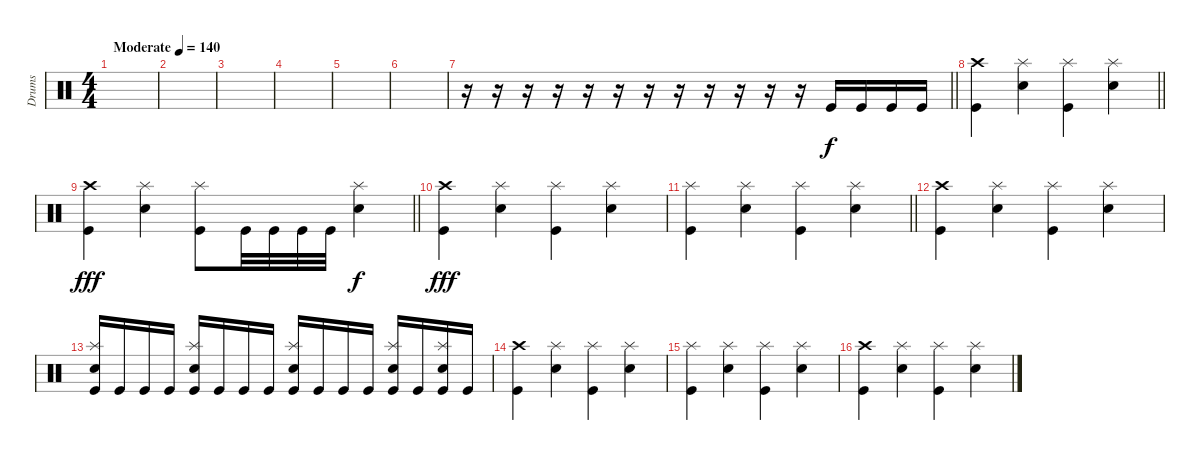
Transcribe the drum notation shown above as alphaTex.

\track ("Drums" "Drums") {instrument percussion}
\staff {score}
\articulation defaults
\ts (4 4)
\tempo (140 "Moderate")
\clef neutral
\ks c
|
|
|
|
|
|
\barLineRight lightlight
r.16 r.16 r.16 r.16 r.16 r.16 r.16 r.16 r.16 r.16 r.16 r.16 "Kick (hit)".16 "Kick (hit)".16 "Kick (hit)".16 "Kick (hit)".16 |
\barLineRight lightlight
("Crash high (hit)" "Kick (hit)").4 ("Splash (hit)" "Electric Snare (hit)").4 ("Splash (hit)" "Kick (hit)").4 ("Splash (hit)" "Electric Snare (hit)").4 |
\barLineRight lightlight
("Crash high (hit)" "Kick (hit)").4{dy fff} ("Splash (hit)" "Electric Snare (hit)").4 ("Splash (hit)" "Kick (hit)").8 "Kick (hit)".32 "Kick (hit)".32 "Kick (hit)".32 "Kick (hit)".32 ("Splash (hit)" "Electric Snare (hit)").4{dy f} |
("Crash high (hit)" "Kick (hit)").4{dy fff} ("Splash (hit)" "Electric Snare (hit)").4 ("Splash (hit)" "Kick (hit)").4 ("Splash (hit)" "Electric Snare (hit)").4 |
\barLineRight lightlight
("Splash (hit)" "Kick (hit)").4 ("Splash (hit)" "Electric Snare (hit)").4 ("Splash (hit)" "Kick (hit)").4 ("Splash (hit)" "Electric Snare (hit)").4 |
("Crash high (hit)" "Kick (hit)").4 ("Splash (hit)" "Electric Snare (hit)").4 ("Splash (hit)" "Kick (hit)").4 ("Splash (hit)" "Electric Snare (hit)").4 |
("Splash (hit)" "Electric Snare (hit)" "Kick (hit)").16 "Kick (hit)".16 "Kick (hit)".16 "Kick (hit)".16 ("Splash (hit)" "Electric Snare (hit)" "Kick (hit)").16 "Kick (hit)".16 "Kick (hit)".16 "Kick (hit)".16 ("Splash (hit)" "Electric Snare (hit)" "Kick (hit)").16 "Kick (hit)".16 "Kick (hit)".16 "Kick (hit)".16 ("Splash (hit)" "Electric Snare (hit)" "Kick (hit)").16 "Kick (hit)".16 ("Splash (hit)" "Electric Snare (hit)" "Kick (hit)").16 "Kick (hit)".16 |
("Crash high (hit)" "Kick (hit)").4 ("Splash (hit)" "Electric Snare (hit)").4 ("Splash (hit)" "Kick (hit)").4 ("Splash (hit)" "Electric Snare (hit)").4 |
("Splash (hit)" "Kick (hit)").4 ("Splash (hit)" "Electric Snare (hit)").4 ("Splash (hit)" "Kick (hit)").4 ("Splash (hit)" "Electric Snare (hit)").4 |
("Crash high (hit)" "Kick (hit)").4 ("Splash (hit)" "Electric Snare (hit)").4 ("Splash (hit)" "Kick (hit)").4 ("Splash (hit)" "Electric Snare (hit)").4
